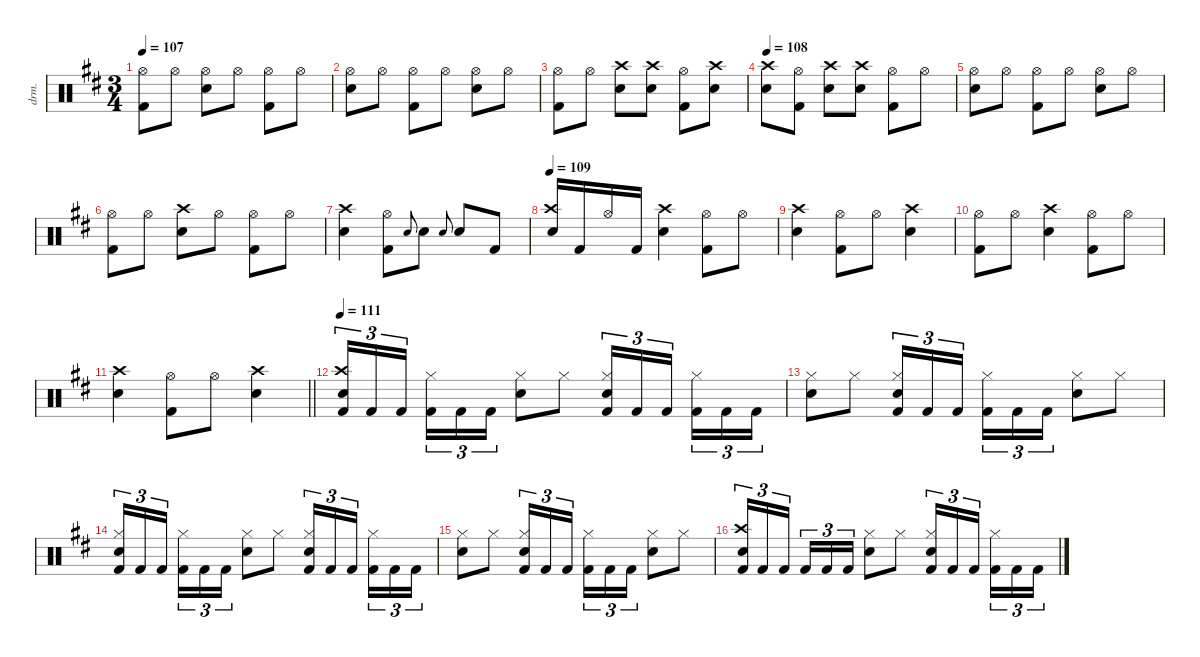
\defaultSystemsLayout 4
\hideDynamics
\bracketExtendMode nobrackets
\otherSystemsTrackNameOrientation horizontal
\track ("Lars Ulrich" "drm.") {defaultSystemsLayout 4 instrument percussion}
\staff {score}
\articulation defaults
\ts (3 4)
\tempo 107
\clef neutral
\ks bminor
("Hi-Hat (open)"{acc forcenatural} "Kick (hit) 2"{acc forcenatural}).8{dy f beam Down} "Hi-Hat (open)"{acc forcenatural}.8{beam Down} ("Hi-Hat (open)"{acc forcenatural} "Snare (hit) 2"{acc forcenatural}).8{beam Down} "Hi-Hat (open)"{acc forcenatural}.8{beam Down} ("Hi-Hat (open)"{acc forcenatural} "Kick (hit) 2"{acc forcenatural}).8{beam Down} "Hi-Hat (open)"{acc forcenatural}.8{beam Down} |
("Hi-Hat (open)"{acc forcenatural} "Snare (hit) 2"{acc forcenatural}).8{beam Down} "Hi-Hat (open)"{acc forcenatural}.8{beam Down} ("Hi-Hat (open)"{acc forcenatural} "Kick (hit) 2"{acc forcenatural}).8{beam Down} "Hi-Hat (open)"{acc forcenatural}.8{beam Down} ("Hi-Hat (open)"{acc forcenatural} "Snare (hit) 2"{acc forcenatural}).8{beam Down} "Hi-Hat (open)"{acc forcenatural}.8{beam Down} |
("Hi-Hat (open)"{acc forcenatural} "Kick (hit) 2"{acc forcenatural}).8{beam Down} "Hi-Hat (open)"{acc forcenatural}.8{beam Down} ("Crash high (hit)"{acc forcenatural} "Snare (hit) 2"{acc forcenatural}).8{beam Down} ("Crash high (hit)"{acc forcenatural} "Snare (hit) 2"{acc forcenatural}).8{beam Down} ("Hi-Hat (open)"{acc forcenatural} "Kick (hit) 2"{acc forcenatural}).8{beam Down} ("Crash high (hit)"{acc forcenatural} "Snare (hit) 2"{acc forcenatural}).8{beam Down} |
\tempo 108
("Crash high (hit)"{acc forcenatural} "Snare (hit) 2"{acc forcenatural}).8{beam Down} ("Hi-Hat (open)"{acc forcenatural} "Kick (hit) 2"{acc forcenatural}).8{beam Down} ("Crash high (hit)"{acc forcenatural} "Snare (hit) 2"{acc forcenatural}).8{beam Down} ("Crash high (hit)"{acc forcenatural} "Snare (hit) 2"{acc forcenatural}).8{beam Down} ("Hi-Hat (open)"{acc forcenatural} "Kick (hit) 2"{acc forcenatural}).8{beam Down} "Hi-Hat (open)"{acc forcenatural}.8{beam Down} |
("Hi-Hat (open)"{acc forcenatural} "Snare (hit) 2"{acc forcenatural}).8{beam Down} "Hi-Hat (open)"{acc forcenatural}.8{beam Down} ("Hi-Hat (open)"{acc forcenatural} "Kick (hit) 2"{acc forcenatural}).8{beam Down} "Hi-Hat (open)"{acc forcenatural}.8{beam Down} ("Hi-Hat (open)"{acc forcenatural} "Snare (hit) 2"{acc forcenatural}).8{beam Down} "Hi-Hat (open)"{acc forcenatural}.8{beam Down} |
("Hi-Hat (open)"{acc forcenatural} "Kick (hit) 2"{acc forcenatural}).8{beam Down} "Hi-Hat (open)"{acc forcenatural}.8{beam Down} ("Crash high (hit)"{acc forcenatural} "Snare (hit) 2"{acc forcenatural}).8{beam Down} "Hi-Hat (open)"{acc forcenatural}.8{beam Down} ("Hi-Hat (open)"{acc forcenatural} "Kick (hit) 2"{acc forcenatural}).8{beam Down} "Hi-Hat (open)"{acc forcenatural}.8{beam Down} |
("Crash high (hit)"{acc forcenatural} "Snare (hit) 2"{acc forcenatural}).4{beam Down} ("Hi-Hat (open)"{acc forcenatural} "Kick (hit) 2"{acc forcenatural}).8{beam Down} "Electric Snare (hit)"{acc forcenatural}.8{gr onbeat dy mp beam Up} "Snare (hit) 2"{acc forcenatural}.8{dy f beam Down} "Electric Snare (hit)"{acc forcenatural}.8{gr onbeat dy mp beam Up} "Snare (hit) 2"{acc forcenatural}.8{dy f beam Up} "Kick (hit) 2"{acc forcenatural}.8{dy fff beam Up} |
\tempo 109
("Crash high (hit)"{acc forcenatural} "Snare (hit) 2"{acc forcenatural}).16{dy f beam Up} "Kick (hit) 2"{acc forcenatural}.16{dy fff beam Up} "Hi-Hat (open)"{acc forcenatural}.16{dy f beam Up} "Kick (hit) 2"{acc forcenatural}.16{dy fff beam Up} ("Crash high (hit)"{acc forcenatural} "Snare (hit) 2"{acc forcenatural}).4{dy f beam Down} ("Hi-Hat (open)"{acc forcenatural} "Kick (hit) 2"{acc forcenatural}).8{beam Down} "Hi-Hat (open)"{acc forcenatural}.8{beam Down} |
("Crash high (hit)"{acc forcenatural} "Snare (hit) 2"{acc forcenatural}).4{beam Down} ("Hi-Hat (open)"{acc forcenatural} "Kick (hit) 2"{acc forcenatural}).8{beam Down} "Hi-Hat (open)"{acc forcenatural}.8{beam Down} ("Crash high (hit)"{acc forcenatural} "Snare (hit) 2"{acc forcenatural}).4{beam Down} |
("Hi-Hat (open)"{acc forcenatural} "Kick (hit) 2"{acc forcenatural}).8{beam Down} "Hi-Hat (open)"{acc forcenatural}.8{beam Down} ("Crash high (hit)"{acc forcenatural} "Snare (hit) 2"{acc forcenatural}).4{beam Down} ("Hi-Hat (open)"{acc forcenatural} "Kick (hit) 2"{acc forcenatural}).8{beam Down} "Hi-Hat (open)"{acc forcenatural}.8{beam Down} |
\barLineRight lightlight
("Crash high (hit)"{acc forcenatural} "Snare (hit) 2"{acc forcenatural}).4{beam Down} ("Hi-Hat (open)"{acc forcenatural} "Kick (hit) 2"{acc forcenatural}).8{beam Down} "Hi-Hat (open)"{acc forcenatural}.8{beam Down} ("Crash high (hit)"{acc forcenatural} "Snare (hit) 2"{acc forcenatural}).4{beam Down} |
\tempo 111
("Crash high (hit)"{acc forcenatural} "Snare (hit) 2"{acc forcenatural} "Kick (hit) 2"{acc forcenatural}).16{tu (3 2) beam Up} "Kick (hit) 2"{acc forcenatural}.16{tu (3 2) beam Up} "Kick (hit) 2"{acc forcenatural}.16{tu (3 2) beam Up} ("Hi-Hat (closed)"{acc forcenatural} "Kick (hit) 2"{acc forcenatural}).16{tu (3 2) beam Down} "Kick (hit) 2"{acc forcenatural}.16{tu (3 2) beam Down} "Kick (hit) 2"{acc forcenatural}.16{tu (3 2) beam Down} ("Hi-Hat (closed)"{acc forcenatural} "Snare (hit) 2"{acc forcenatural}).8{beam Down} "Hi-Hat (closed)"{acc forcenatural}.8{beam Down} ("Hi-Hat (closed)"{acc forcenatural} "Snare (hit) 2"{acc forcenatural} "Kick (hit) 2"{acc forcenatural}).16{tu (3 2) beam Up} "Kick (hit) 2"{acc forcenatural}.16{tu (3 2) beam Up} "Kick (hit) 2"{acc forcenatural}.16{tu (3 2) beam Up} ("Hi-Hat (closed)"{acc forcenatural} "Kick (hit) 2"{acc forcenatural}).16{tu (3 2) beam Down} "Kick (hit) 2"{acc forcenatural}.16{tu (3 2) beam Down} "Kick (hit) 2"{acc forcenatural}.16{tu (3 2) beam Down} |
("Hi-Hat (closed)"{acc forcenatural} "Snare (hit) 2"{acc forcenatural}).8{beam Down} "Hi-Hat (closed)"{acc forcenatural}.8{beam Down} ("Hi-Hat (closed)"{acc forcenatural} "Snare (hit) 2"{acc forcenatural} "Kick (hit) 2"{acc forcenatural}).16{tu (3 2) beam Up} "Kick (hit) 2"{acc forcenatural}.16{tu (3 2) beam Up} "Kick (hit) 2"{acc forcenatural}.16{tu (3 2) beam Up} ("Hi-Hat (closed)"{acc forcenatural} "Kick (hit) 2"{acc forcenatural}).16{tu (3 2) beam Down} "Kick (hit) 2"{acc forcenatural}.16{tu (3 2) beam Down} "Kick (hit) 2"{acc forcenatural}.16{tu (3 2) beam Down} ("Hi-Hat (closed)"{acc forcenatural} "Snare (hit) 2"{acc forcenatural}).8{beam Down} "Hi-Hat (closed)"{acc forcenatural}.8{beam Down} |
("Hi-Hat (closed)"{acc forcenatural} "Snare (hit) 2"{acc forcenatural} "Kick (hit) 2"{acc forcenatural}).16{tu (3 2) beam Up} "Kick (hit) 2"{acc forcenatural}.16{tu (3 2) beam Up} "Kick (hit) 2"{acc forcenatural}.16{tu (3 2) beam Up} ("Hi-Hat (closed)"{acc forcenatural} "Kick (hit) 2"{acc forcenatural}).16{tu (3 2) beam Down} "Kick (hit) 2"{acc forcenatural}.16{tu (3 2) beam Down} "Kick (hit) 2"{acc forcenatural}.16{tu (3 2) beam Down} ("Hi-Hat (closed)"{acc forcenatural} "Snare (hit) 2"{acc forcenatural}).8{beam Down} "Hi-Hat (closed)"{acc forcenatural}.8{beam Down} ("Hi-Hat (closed)"{acc forcenatural} "Snare (hit) 2"{acc forcenatural} "Kick (hit) 2"{acc forcenatural}).16{tu (3 2) beam Up} "Kick (hit) 2"{acc forcenatural}.16{tu (3 2) beam Up} "Kick (hit) 2"{acc forcenatural}.16{tu (3 2) beam Up} ("Hi-Hat (closed)"{acc forcenatural} "Kick (hit) 2"{acc forcenatural}).16{tu (3 2) beam Down} "Kick (hit) 2"{acc forcenatural}.16{tu (3 2) beam Down} "Kick (hit) 2"{acc forcenatural}.16{tu (3 2) beam Down} |
("Hi-Hat (closed)"{acc forcenatural} "Snare (hit) 2"{acc forcenatural}).8{beam Down} "Hi-Hat (closed)"{acc forcenatural}.8{beam Down} ("Hi-Hat (closed)"{acc forcenatural} "Snare (hit) 2"{acc forcenatural} "Kick (hit) 2"{acc forcenatural}).16{tu (3 2) beam Up} "Kick (hit) 2"{acc forcenatural}.16{tu (3 2) beam Up} "Kick (hit) 2"{acc forcenatural}.16{tu (3 2) beam Up} ("Hi-Hat (closed)"{acc forcenatural} "Kick (hit) 2"{acc forcenatural}).16{tu (3 2) beam Down} "Kick (hit) 2"{acc forcenatural}.16{tu (3 2) beam Down} "Kick (hit) 2"{acc forcenatural}.16{tu (3 2) beam Down} ("Hi-Hat (closed)"{acc forcenatural} "Snare (hit) 2"{acc forcenatural}).8{beam Down} "Hi-Hat (closed)"{acc forcenatural}.8{beam Down} |
("Crash high (hit)"{acc forcenatural} "Snare (hit) 2"{acc forcenatural} "Kick (hit) 2"{acc forcenatural}).16{tu (3 2) beam Up} "Kick (hit) 2"{acc forcenatural}.16{tu (3 2) beam Up} "Kick (hit) 2"{acc forcenatural}.16{tu (3 2) beam Up} "Kick (hit) 2"{acc forcenatural}.16{tu (3 2) beam Up} "Kick (hit) 2"{acc forcenatural}.16{tu (3 2) beam Up} "Kick (hit) 2"{acc forcenatural}.16{tu (3 2) beam Up} ("Hi-Hat (closed)"{acc forcenatural} "Snare (hit) 2"{acc forcenatural}).8{beam Down} "Hi-Hat (closed)"{acc forcenatural}.8{beam Down} ("Hi-Hat (closed)"{acc forcenatural} "Snare (hit) 2"{acc forcenatural} "Kick (hit) 2"{acc forcenatural}).16{tu (3 2) beam Up} "Kick (hit) 2"{acc forcenatural}.16{tu (3 2) beam Up} "Kick (hit) 2"{acc forcenatural}.16{tu (3 2) beam Up} ("Hi-Hat (closed)"{acc forcenatural} "Kick (hit) 2"{acc forcenatural}).16{tu (3 2) beam Down} "Kick (hit) 2"{acc forcenatural}.16{tu (3 2) beam Down} "Kick (hit) 2"{acc forcenatural}.16{tu (3 2) beam Down}
